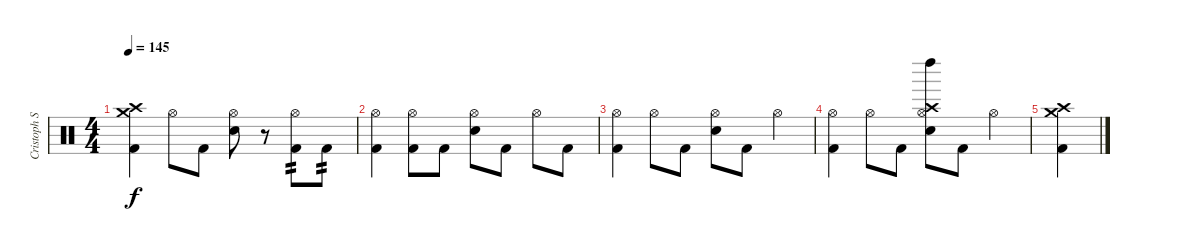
\track ("Cristoph Schneider" "Cristoph S") {instrument percussion}
\staff {score}
\articulation defaults
\ts (4 4)
\tempo 145
\clef neutral
\ks c
("Crash high (hit)" "Crash medium (hit)" "Kick (hit) 2").4{dy f} "Hi-Hat (open)".8 "Kick (hit) 2".8 ("Hi-Hat (open)" "Electric Snare (hit)").8 r.8 ("Hi-Hat (open)" "Kick (hit) 2").8{tp 2} "Kick (hit) 2".8{tp 2} |
("Hi-Hat (open)" "Kick (hit) 2").4 ("Hi-Hat (open)" "Kick (hit) 2").8 "Kick (hit) 2".8 ("Hi-Hat (open)" "Electric Snare (hit)").8 "Kick (hit) 2".8 "Hi-Hat (open)".8 "Kick (hit) 2".8 |
("Hi-Hat (open)" "Kick (hit) 2").4 "Hi-Hat (open)".8 "Kick (hit) 2".8 ("Hi-Hat (open)" "Electric Snare (hit)").8 "Kick (hit) 2".8 "Hi-Hat (open)".4 |
("Hi-Hat (open)" "Kick (hit) 2").4 "Hi-Hat (open)".8 "Kick (hit) 2".8 ("Hi-Hat (open)" "Crash high (hit)" "Left Maraca (hit)" "Electric Snare (hit)").8 "Kick (hit) 2".8 "Hi-Hat (open)".4 |
("Kick (hit) 2" "Crash high (hit)" "Crash medium (hit)").4
